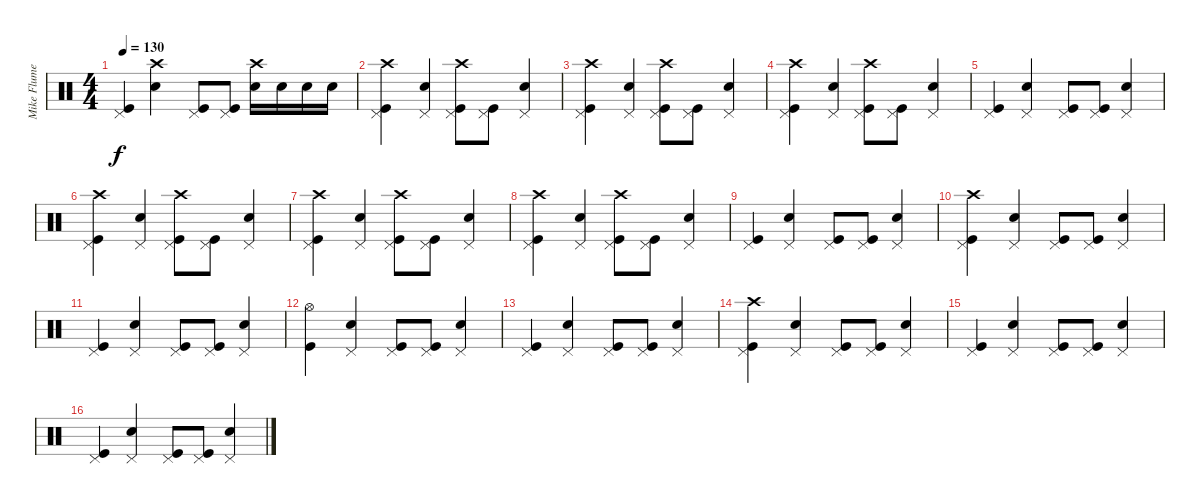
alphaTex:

\track ("Mike Flumee" "Mike Flume") {instrument percussion}
\staff {score}
\articulation defaults
\ts (4 4)
\tempo 130
\clef neutral
\ks c
("Pedal Hi-Hat (hit)" "Kick (hit)").4{dy f} ("Crash high (hit)" "Electric Snare (hit)").4 ("Pedal Hi-Hat (hit)" "Kick (hit)").8 ("Pedal Hi-Hat (hit)" "Kick (hit)").8 ("Crash high (hit)" "Electric Snare (hit)").16 "Electric Snare (hit)".16 "Electric Snare (hit)".16 "Electric Snare (hit)".16 |
("Crash high (hit)" "Pedal Hi-Hat (hit)" "Kick (hit)").4 ("Pedal Hi-Hat (hit)" "Electric Snare (hit)").4 ("Crash high (hit)" "Pedal Hi-Hat (hit)" "Kick (hit)").8 ("Pedal Hi-Hat (hit)" "Kick (hit)").8 ("Pedal Hi-Hat (hit)" "Electric Snare (hit)").4 |
("Crash high (hit)" "Pedal Hi-Hat (hit)" "Kick (hit)").4 ("Pedal Hi-Hat (hit)" "Electric Snare (hit)").4 ("Crash high (hit)" "Pedal Hi-Hat (hit)" "Kick (hit)").8 ("Pedal Hi-Hat (hit)" "Kick (hit)").8 ("Pedal Hi-Hat (hit)" "Electric Snare (hit)").4 |
("Crash high (hit)" "Pedal Hi-Hat (hit)" "Kick (hit)").4 ("Pedal Hi-Hat (hit)" "Electric Snare (hit)").4 ("Crash high (hit)" "Pedal Hi-Hat (hit)" "Kick (hit)").8 ("Pedal Hi-Hat (hit)" "Kick (hit)").8 ("Pedal Hi-Hat (hit)" "Electric Snare (hit)").4 |
("Pedal Hi-Hat (hit)" "Kick (hit)").4 ("Pedal Hi-Hat (hit)" "Electric Snare (hit)").4 ("Pedal Hi-Hat (hit)" "Kick (hit)").8 ("Pedal Hi-Hat (hit)" "Kick (hit)").8 ("Pedal Hi-Hat (hit)" "Electric Snare (hit)").4 |
("Crash high (hit)" "Pedal Hi-Hat (hit)" "Kick (hit)").4 ("Pedal Hi-Hat (hit)" "Electric Snare (hit)").4 ("Crash high (hit)" "Pedal Hi-Hat (hit)" "Kick (hit)").8 ("Pedal Hi-Hat (hit)" "Kick (hit)").8 ("Pedal Hi-Hat (hit)" "Electric Snare (hit)").4 |
("Crash high (hit)" "Pedal Hi-Hat (hit)" "Kick (hit)").4 ("Pedal Hi-Hat (hit)" "Electric Snare (hit)").4 ("Crash high (hit)" "Pedal Hi-Hat (hit)" "Kick (hit)").8 ("Pedal Hi-Hat (hit)" "Kick (hit)").8 ("Pedal Hi-Hat (hit)" "Electric Snare (hit)").4 |
("Crash high (hit)" "Pedal Hi-Hat (hit)" "Kick (hit)").4 ("Pedal Hi-Hat (hit)" "Electric Snare (hit)").4 ("Crash high (hit)" "Pedal Hi-Hat (hit)" "Kick (hit)").8 ("Pedal Hi-Hat (hit)" "Kick (hit)").8 ("Pedal Hi-Hat (hit)" "Electric Snare (hit)").4 |
("Pedal Hi-Hat (hit)" "Kick (hit)").4 ("Pedal Hi-Hat (hit)" "Electric Snare (hit)").4 ("Pedal Hi-Hat (hit)" "Kick (hit)").8 ("Pedal Hi-Hat (hit)" "Kick (hit)").8 ("Pedal Hi-Hat (hit)" "Electric Snare (hit)").4 |
("Crash high (hit)" "Pedal Hi-Hat (hit)" "Kick (hit)").4 ("Pedal Hi-Hat (hit)" "Electric Snare (hit)").4 ("Pedal Hi-Hat (hit)" "Kick (hit)").8 ("Pedal Hi-Hat (hit)" "Kick (hit)").8 ("Pedal Hi-Hat (hit)" "Electric Snare (hit)").4 |
("Pedal Hi-Hat (hit)" "Kick (hit)").4 ("Pedal Hi-Hat (hit)" "Electric Snare (hit)").4 ("Pedal Hi-Hat (hit)" "Kick (hit)").8 ("Pedal Hi-Hat (hit)" "Kick (hit)").8 ("Pedal Hi-Hat (hit)" "Electric Snare (hit)").4 |
("Hi-Hat (open)" "Kick (hit)").4 ("Pedal Hi-Hat (hit)" "Electric Snare (hit)").4 ("Pedal Hi-Hat (hit)" "Kick (hit)").8 ("Pedal Hi-Hat (hit)" "Kick (hit)").8 ("Pedal Hi-Hat (hit)" "Electric Snare (hit)").4 |
("Pedal Hi-Hat (hit)" "Kick (hit)").4 ("Pedal Hi-Hat (hit)" "Electric Snare (hit)").4 ("Pedal Hi-Hat (hit)" "Kick (hit)").8 ("Pedal Hi-Hat (hit)" "Kick (hit)").8 ("Pedal Hi-Hat (hit)" "Electric Snare (hit)").4 |
("Crash high (hit)" "Pedal Hi-Hat (hit)" "Kick (hit)").4 ("Pedal Hi-Hat (hit)" "Electric Snare (hit)").4 ("Pedal Hi-Hat (hit)" "Kick (hit)").8 ("Pedal Hi-Hat (hit)" "Kick (hit)").8 ("Pedal Hi-Hat (hit)" "Electric Snare (hit)").4 |
("Pedal Hi-Hat (hit)" "Kick (hit)").4 ("Pedal Hi-Hat (hit)" "Electric Snare (hit)").4 ("Pedal Hi-Hat (hit)" "Kick (hit)").8 ("Pedal Hi-Hat (hit)" "Kick (hit)").8 ("Pedal Hi-Hat (hit)" "Electric Snare (hit)").4 |
("Pedal Hi-Hat (hit)" "Kick (hit)").4 ("Pedal Hi-Hat (hit)" "Electric Snare (hit)").4 ("Pedal Hi-Hat (hit)" "Kick (hit)").8 ("Pedal Hi-Hat (hit)" "Kick (hit)").8 ("Pedal Hi-Hat (hit)" "Electric Snare (hit)").4
